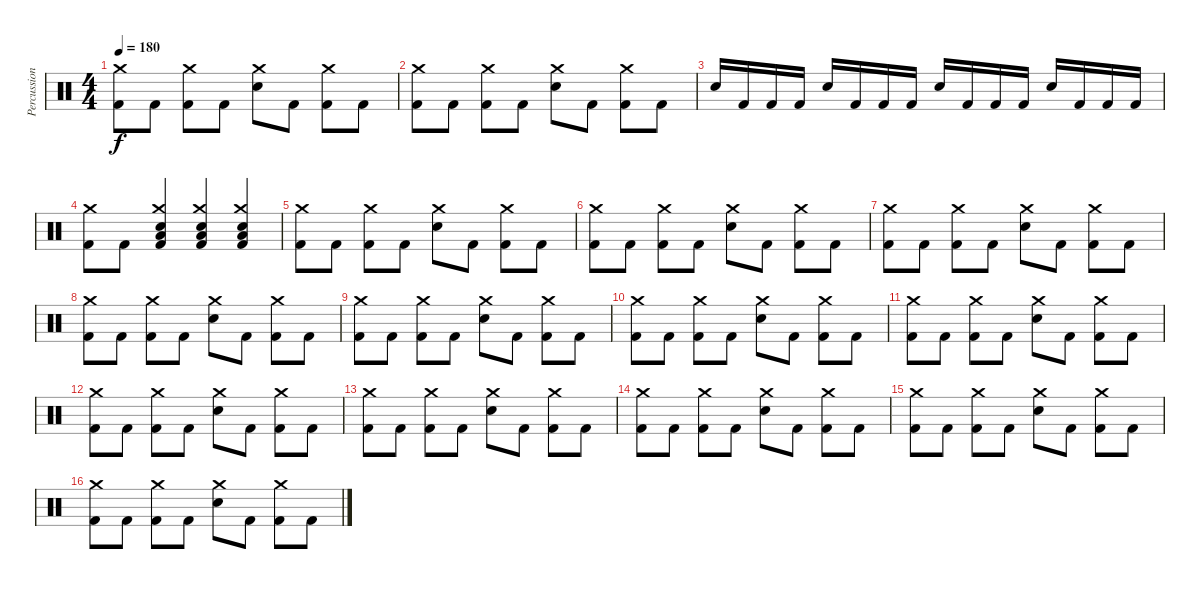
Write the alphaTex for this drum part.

\track ("Percussion" "Percussion") {instrument percussion}
\staff {score}
\articulation defaults
\ts (4 4)
\tempo 180
\clef neutral
\ks c
("Kick (hit) 2" "Crash medium (hit)").8{dy f} "Kick (hit) 2".8 ("Kick (hit) 2" "Crash medium (hit)").8 "Kick (hit) 2".8 ("Electric Snare (hit)" "Crash medium (hit)").8 "Kick (hit) 2".8 ("Kick (hit) 2" "Crash medium (hit)").8 "Kick (hit) 2".8 |
("Kick (hit) 2" "Crash medium (hit)").8 "Kick (hit) 2".8 ("Kick (hit) 2" "Crash medium (hit)").8 "Kick (hit) 2".8 ("Electric Snare (hit)" "Crash medium (hit)").8 "Kick (hit) 2".8 ("Kick (hit) 2" "Crash medium (hit)").8 "Kick (hit) 2".8 |
"Electric Snare (hit)".16 "Kick (hit) 2".16 "Kick (hit) 2".16 "Kick (hit) 2".16 "Electric Snare (hit)".16 "Kick (hit) 2".16 "Kick (hit) 2".16 "Kick (hit) 2".16 "Electric Snare (hit)".16 "Kick (hit) 2".16 "Kick (hit) 2".16 "Kick (hit) 2".16 "Electric Snare (hit)".16 "Kick (hit) 2".16 "Kick (hit) 2".16 "Kick (hit) 2".16 |
("Kick (hit) 2" "Crash medium (hit)").8 "Kick (hit) 2".8 ("Low Tom (hit)" "Electric Snare (hit)" "Kick (hit) 2" "Crash medium (hit)").4 ("Low Tom (hit)" "Electric Snare (hit)" "Kick (hit) 2" "Crash medium (hit)").4 ("Low Tom (hit)" "Electric Snare (hit)" "Kick (hit) 2" "Crash medium (hit)").4 |
("Kick (hit) 2" "Crash medium (hit)").8 "Kick (hit) 2".8 ("Kick (hit) 2" "Crash medium (hit)").8 "Kick (hit) 2".8 ("Electric Snare (hit)" "Crash medium (hit)").8 "Kick (hit) 2".8 ("Kick (hit) 2" "Crash medium (hit)").8 "Kick (hit) 2".8 |
("Kick (hit) 2" "Crash medium (hit)").8 "Kick (hit) 2".8 ("Kick (hit) 2" "Crash medium (hit)").8 "Kick (hit) 2".8 ("Electric Snare (hit)" "Crash medium (hit)").8 "Kick (hit) 2".8 ("Kick (hit) 2" "Crash medium (hit)").8 "Kick (hit) 2".8 |
("Kick (hit) 2" "Crash medium (hit)").8 "Kick (hit) 2".8 ("Kick (hit) 2" "Crash medium (hit)").8 "Kick (hit) 2".8 ("Electric Snare (hit)" "Crash medium (hit)").8 "Kick (hit) 2".8 ("Kick (hit) 2" "Crash medium (hit)").8 "Kick (hit) 2".8 |
("Kick (hit) 2" "Crash medium (hit)").8 "Kick (hit) 2".8 ("Kick (hit) 2" "Crash medium (hit)").8 "Kick (hit) 2".8 ("Electric Snare (hit)" "Crash medium (hit)").8 "Kick (hit) 2".8 ("Kick (hit) 2" "Crash medium (hit)").8 "Kick (hit) 2".8 |
("Kick (hit) 2" "Crash medium (hit)").8 "Kick (hit) 2".8 ("Kick (hit) 2" "Crash medium (hit)").8 "Kick (hit) 2".8 ("Electric Snare (hit)" "Crash medium (hit)").8 "Kick (hit) 2".8 ("Kick (hit) 2" "Crash medium (hit)").8 "Kick (hit) 2".8 |
("Kick (hit) 2" "Crash medium (hit)").8 "Kick (hit) 2".8 ("Kick (hit) 2" "Crash medium (hit)").8 "Kick (hit) 2".8 ("Electric Snare (hit)" "Crash medium (hit)").8 "Kick (hit) 2".8 ("Kick (hit) 2" "Crash medium (hit)").8 "Kick (hit) 2".8 |
("Kick (hit) 2" "Crash medium (hit)").8 "Kick (hit) 2".8 ("Kick (hit) 2" "Crash medium (hit)").8 "Kick (hit) 2".8 ("Electric Snare (hit)" "Crash medium (hit)").8 "Kick (hit) 2".8 ("Kick (hit) 2" "Crash medium (hit)").8 "Kick (hit) 2".8 |
("Kick (hit) 2" "Crash medium (hit)").8 "Kick (hit) 2".8 ("Kick (hit) 2" "Crash medium (hit)").8 "Kick (hit) 2".8 ("Electric Snare (hit)" "Crash medium (hit)").8 "Kick (hit) 2".8 ("Kick (hit) 2" "Crash medium (hit)").8 "Kick (hit) 2".8 |
("Kick (hit) 2" "Crash medium (hit)").8 "Kick (hit) 2".8 ("Kick (hit) 2" "Crash medium (hit)").8 "Kick (hit) 2".8 ("Electric Snare (hit)" "Crash medium (hit)").8 "Kick (hit) 2".8 ("Kick (hit) 2" "Crash medium (hit)").8 "Kick (hit) 2".8 |
("Kick (hit) 2" "Crash medium (hit)").8 "Kick (hit) 2".8 ("Kick (hit) 2" "Crash medium (hit)").8 "Kick (hit) 2".8 ("Electric Snare (hit)" "Crash medium (hit)").8 "Kick (hit) 2".8 ("Kick (hit) 2" "Crash medium (hit)").8 "Kick (hit) 2".8 |
("Kick (hit) 2" "Crash medium (hit)").8 "Kick (hit) 2".8 ("Kick (hit) 2" "Crash medium (hit)").8 "Kick (hit) 2".8 ("Electric Snare (hit)" "Crash medium (hit)").8 "Kick (hit) 2".8 ("Kick (hit) 2" "Crash medium (hit)").8 "Kick (hit) 2".8 |
("Kick (hit) 2" "Crash medium (hit)").8 "Kick (hit) 2".8 ("Kick (hit) 2" "Crash medium (hit)").8 "Kick (hit) 2".8 ("Electric Snare (hit)" "Crash medium (hit)").8 "Kick (hit) 2".8 ("Kick (hit) 2" "Crash medium (hit)").8 "Kick (hit) 2".8
